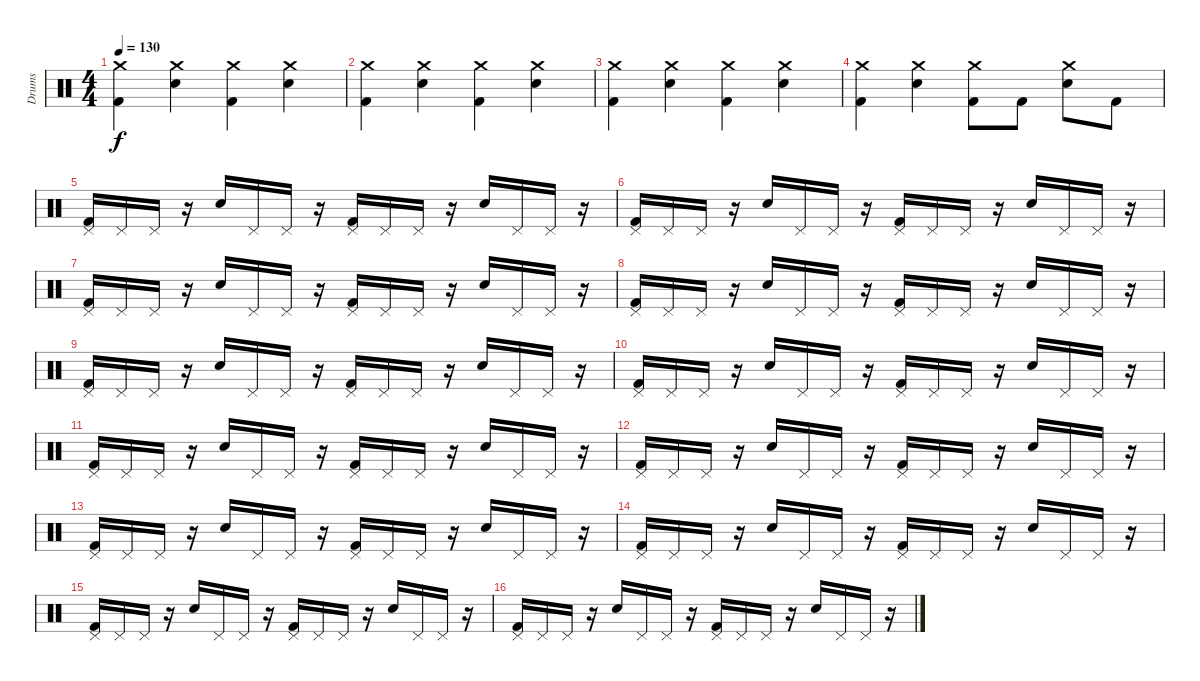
\track ("Drums" "Drums") {instrument percussion}
\staff {score}
\articulation defaults
\ts (4 4)
\tempo 130
\clef neutral
\ks c
("Crash medium (hit)" "Kick (hit) 2").4{dy f} ("Crash medium (hit)" "Electric Snare (hit)").4 ("Crash medium (hit)" "Kick (hit) 2").4 ("Crash medium (hit)" "Electric Snare (hit)").4 |
("Crash medium (hit)" "Kick (hit) 2").4 ("Crash medium (hit)" "Electric Snare (hit)").4 ("Crash medium (hit)" "Kick (hit) 2").4 ("Crash medium (hit)" "Electric Snare (hit)").4 |
("Crash medium (hit)" "Kick (hit) 2").4 ("Crash medium (hit)" "Electric Snare (hit)").4 ("Crash medium (hit)" "Kick (hit) 2").4 ("Crash medium (hit)" "Electric Snare (hit)").4 |
("Crash medium (hit)" "Kick (hit) 2").4 ("Crash medium (hit)" "Electric Snare (hit)").4 ("Crash medium (hit)" "Kick (hit) 2").8 "Kick (hit) 2".8 ("Crash medium (hit)" "Electric Snare (hit)").8 "Kick (hit) 2".8 |
("Pedal Hi-Hat (hit)" "Kick (hit) 2").16 "Pedal Hi-Hat (hit)".16 "Pedal Hi-Hat (hit)".16 r.16 "Electric Snare (hit)".16 "Pedal Hi-Hat (hit)".16 "Pedal Hi-Hat (hit)".16 r.16 ("Pedal Hi-Hat (hit)" "Kick (hit) 2").16 "Pedal Hi-Hat (hit)".16 "Pedal Hi-Hat (hit)".16 r.16 "Electric Snare (hit)".16 "Pedal Hi-Hat (hit)".16 "Pedal Hi-Hat (hit)".16 r.16 |
("Pedal Hi-Hat (hit)" "Kick (hit) 2").16 "Pedal Hi-Hat (hit)".16 "Pedal Hi-Hat (hit)".16 r.16 "Electric Snare (hit)".16 "Pedal Hi-Hat (hit)".16 "Pedal Hi-Hat (hit)".16 r.16 ("Pedal Hi-Hat (hit)" "Kick (hit) 2").16 "Pedal Hi-Hat (hit)".16 "Pedal Hi-Hat (hit)".16 r.16 "Electric Snare (hit)".16 "Pedal Hi-Hat (hit)".16 "Pedal Hi-Hat (hit)".16 r.16 |
("Pedal Hi-Hat (hit)" "Kick (hit) 2").16 "Pedal Hi-Hat (hit)".16 "Pedal Hi-Hat (hit)".16 r.16 "Electric Snare (hit)".16 "Pedal Hi-Hat (hit)".16 "Pedal Hi-Hat (hit)".16 r.16 ("Pedal Hi-Hat (hit)" "Kick (hit) 2").16 "Pedal Hi-Hat (hit)".16 "Pedal Hi-Hat (hit)".16 r.16 "Electric Snare (hit)".16 "Pedal Hi-Hat (hit)".16 "Pedal Hi-Hat (hit)".16 r.16 |
("Pedal Hi-Hat (hit)" "Kick (hit) 2").16 "Pedal Hi-Hat (hit)".16 "Pedal Hi-Hat (hit)".16 r.16 "Electric Snare (hit)".16 "Pedal Hi-Hat (hit)".16 "Pedal Hi-Hat (hit)".16 r.16 ("Pedal Hi-Hat (hit)" "Kick (hit) 2").16 "Pedal Hi-Hat (hit)".16 "Pedal Hi-Hat (hit)".16 r.16 "Electric Snare (hit)".16 "Pedal Hi-Hat (hit)".16 "Pedal Hi-Hat (hit)".16 r.16 |
("Pedal Hi-Hat (hit)" "Kick (hit) 2").16 "Pedal Hi-Hat (hit)".16 "Pedal Hi-Hat (hit)".16 r.16 "Electric Snare (hit)".16 "Pedal Hi-Hat (hit)".16 "Pedal Hi-Hat (hit)".16 r.16 ("Pedal Hi-Hat (hit)" "Kick (hit) 2").16 "Pedal Hi-Hat (hit)".16 "Pedal Hi-Hat (hit)".16 r.16 "Electric Snare (hit)".16 "Pedal Hi-Hat (hit)".16 "Pedal Hi-Hat (hit)".16 r.16 |
("Pedal Hi-Hat (hit)" "Kick (hit) 2").16 "Pedal Hi-Hat (hit)".16 "Pedal Hi-Hat (hit)".16 r.16 "Electric Snare (hit)".16 "Pedal Hi-Hat (hit)".16 "Pedal Hi-Hat (hit)".16 r.16 ("Pedal Hi-Hat (hit)" "Kick (hit) 2").16 "Pedal Hi-Hat (hit)".16 "Pedal Hi-Hat (hit)".16 r.16 "Electric Snare (hit)".16 "Pedal Hi-Hat (hit)".16 "Pedal Hi-Hat (hit)".16 r.16 |
("Pedal Hi-Hat (hit)" "Kick (hit) 2").16 "Pedal Hi-Hat (hit)".16 "Pedal Hi-Hat (hit)".16 r.16 "Electric Snare (hit)".16 "Pedal Hi-Hat (hit)".16 "Pedal Hi-Hat (hit)".16 r.16 ("Pedal Hi-Hat (hit)" "Kick (hit) 2").16 "Pedal Hi-Hat (hit)".16 "Pedal Hi-Hat (hit)".16 r.16 "Electric Snare (hit)".16 "Pedal Hi-Hat (hit)".16 "Pedal Hi-Hat (hit)".16 r.16 |
("Pedal Hi-Hat (hit)" "Kick (hit) 2").16 "Pedal Hi-Hat (hit)".16 "Pedal Hi-Hat (hit)".16 r.16 "Electric Snare (hit)".16 "Pedal Hi-Hat (hit)".16 "Pedal Hi-Hat (hit)".16 r.16 ("Pedal Hi-Hat (hit)" "Kick (hit) 2").16 "Pedal Hi-Hat (hit)".16 "Pedal Hi-Hat (hit)".16 r.16 "Electric Snare (hit)".16 "Pedal Hi-Hat (hit)".16 "Pedal Hi-Hat (hit)".16 r.16 |
("Pedal Hi-Hat (hit)" "Kick (hit) 2").16 "Pedal Hi-Hat (hit)".16 "Pedal Hi-Hat (hit)".16 r.16 "Electric Snare (hit)".16 "Pedal Hi-Hat (hit)".16 "Pedal Hi-Hat (hit)".16 r.16 ("Pedal Hi-Hat (hit)" "Kick (hit) 2").16 "Pedal Hi-Hat (hit)".16 "Pedal Hi-Hat (hit)".16 r.16 "Electric Snare (hit)".16 "Pedal Hi-Hat (hit)".16 "Pedal Hi-Hat (hit)".16 r.16 |
("Pedal Hi-Hat (hit)" "Kick (hit) 2").16 "Pedal Hi-Hat (hit)".16 "Pedal Hi-Hat (hit)".16 r.16 "Electric Snare (hit)".16 "Pedal Hi-Hat (hit)".16 "Pedal Hi-Hat (hit)".16 r.16 ("Pedal Hi-Hat (hit)" "Kick (hit) 2").16 "Pedal Hi-Hat (hit)".16 "Pedal Hi-Hat (hit)".16 r.16 "Electric Snare (hit)".16 "Pedal Hi-Hat (hit)".16 "Pedal Hi-Hat (hit)".16 r.16 |
("Pedal Hi-Hat (hit)" "Kick (hit) 2").16 "Pedal Hi-Hat (hit)".16 "Pedal Hi-Hat (hit)".16 r.16 "Electric Snare (hit)".16 "Pedal Hi-Hat (hit)".16 "Pedal Hi-Hat (hit)".16 r.16 ("Pedal Hi-Hat (hit)" "Kick (hit) 2").16 "Pedal Hi-Hat (hit)".16 "Pedal Hi-Hat (hit)".16 r.16 "Electric Snare (hit)".16 "Pedal Hi-Hat (hit)".16 "Pedal Hi-Hat (hit)".16 r.16 |
("Pedal Hi-Hat (hit)" "Kick (hit) 2").16 "Pedal Hi-Hat (hit)".16 "Pedal Hi-Hat (hit)".16 r.16 "Electric Snare (hit)".16 "Pedal Hi-Hat (hit)".16 "Pedal Hi-Hat (hit)".16 r.16 ("Pedal Hi-Hat (hit)" "Kick (hit) 2").16 "Pedal Hi-Hat (hit)".16 "Pedal Hi-Hat (hit)".16 r.16 "Electric Snare (hit)".16 "Pedal Hi-Hat (hit)".16 "Pedal Hi-Hat (hit)".16 r.16
